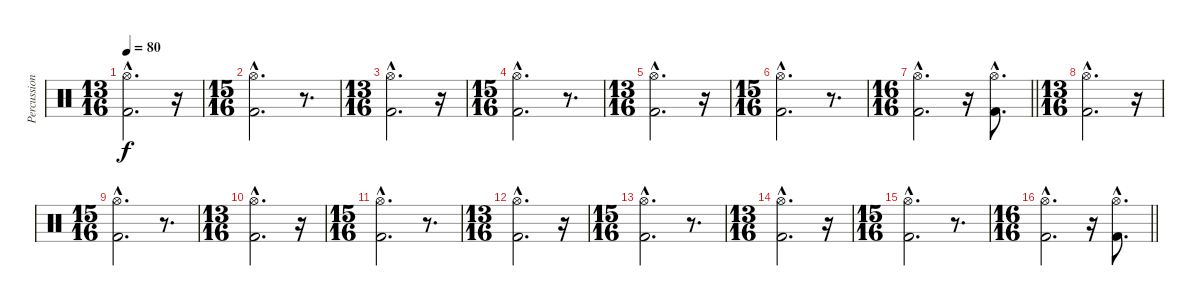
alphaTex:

\track ("Percussion" "Percussion") {instrument percussion}
\staff {score}
\articulation defaults
\ts (13 16)
\tempo 80
\clef neutral
\ks c
("Hi-Hat (open)"{hac} "Kick (hit) 2"{hac}).2{d dy f} r.16 |
\ts (15 16)
("Hi-Hat (open)"{hac} "Kick (hit) 2"{hac}).2{d} r.8{d} |
\ts (13 16)
("Hi-Hat (open)"{hac} "Kick (hit) 2"{hac}).2{d} r.16 |
\ts (15 16)
("Hi-Hat (open)"{hac} "Kick (hit) 2"{hac}).2{d} r.8{d} |
\ts (13 16)
("Hi-Hat (open)"{hac} "Kick (hit) 2"{hac}).2{d} r.16 |
\ts (15 16)
("Hi-Hat (open)"{hac} "Kick (hit) 2"{hac}).2{d} r.8{d} |
\ts (16 16)
\barLineRight lightlight
("Hi-Hat (open)"{hac} "Kick (hit) 2"{hac}).2{d} r.16 ("Hi-Hat (open)"{hac} "Kick (hit) 2"{hac}).8{d} |
\ts (13 16)
\section ("" "")
("Hi-Hat (open)"{hac} "Kick (hit) 2"{hac}).2{d} r.16 |
\ts (15 16)
("Hi-Hat (open)"{hac} "Kick (hit) 2"{hac}).2{d} r.8{d} |
\ts (13 16)
("Hi-Hat (open)"{hac} "Kick (hit) 2"{hac}).2{d} r.16 |
\ts (15 16)
("Hi-Hat (open)"{hac} "Kick (hit) 2"{hac}).2{d} r.8{d} |
\ts (13 16)
("Hi-Hat (open)"{hac} "Kick (hit) 2"{hac}).2{d} r.16 |
\ts (15 16)
("Hi-Hat (open)"{hac} "Kick (hit) 2"{hac}).2{d} r.8{d} |
\ts (13 16)
("Hi-Hat (open)"{hac} "Kick (hit) 2"{hac}).2{d} r.16 |
\ts (15 16)
("Hi-Hat (open)"{hac} "Kick (hit) 2"{hac}).2{d} r.8{d} |
\ts (16 16)
\barLineRight lightlight
("Hi-Hat (open)"{hac} "Kick (hit) 2"{hac}).2{d} r.16 ("Hi-Hat (open)"{hac} "Kick (hit) 2"{hac}).8{d}
